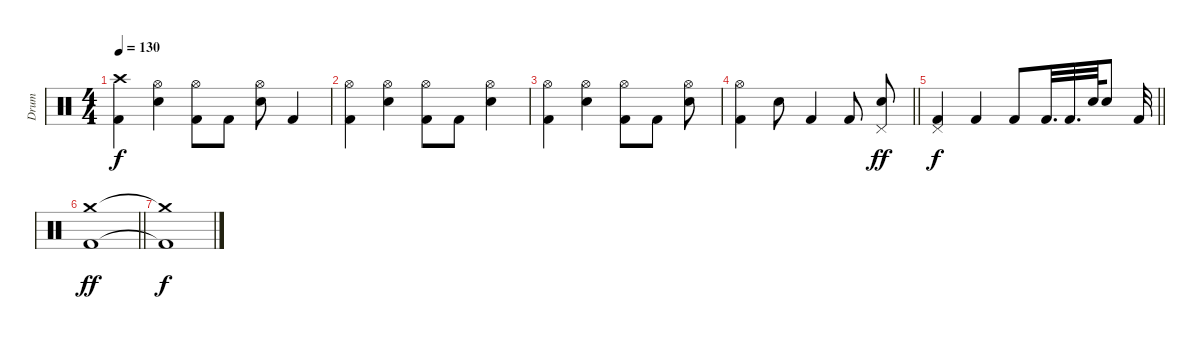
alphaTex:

\track ("Drum" "Drum") {instrument percussion}
\staff {score}
\articulation defaults
\ts (4 4)
\tempo 130
\clef neutral
\ks c
("Crash high (hit)" "Kick (hit) 2").4{dy f} ("Hi-Hat (open)" "Electric Snare (hit)").4 ("Hi-Hat (open)" "Kick (hit) 2").8 "Kick (hit) 2".8 ("Hi-Hat (open)" "Electric Snare (hit)").8 "Kick (hit) 2".4 |
("Hi-Hat (open)" "Kick (hit) 2").4 ("Hi-Hat (open)" "Electric Snare (hit)").4 ("Hi-Hat (open)" "Kick (hit) 2").8 "Kick (hit) 2".8 ("Hi-Hat (open)" "Electric Snare (hit)").4 |
("Hi-Hat (open)" "Kick (hit) 2").4 ("Hi-Hat (open)" "Electric Snare (hit)").4 ("Hi-Hat (open)" "Kick (hit) 2").8 "Kick (hit) 2".8 ("Hi-Hat (open)" "Electric Snare (hit)").8 |
\barLineRight lightlight
("Hi-Hat (open)" "Kick (hit) 2").4 "Electric Snare (hit)".8 "Kick (hit) 2".4 "Kick (hit) 2".8 ("Pedal Hi-Hat (hit)" "Electric Snare (hit)").8{dy ff} |
\barLineRight lightlight
("Pedal Hi-Hat (hit)" "Kick (hit) 2").4{dy f} "Kick (hit) 2".4 "Kick (hit) 2".8 "Kick (hit) 2".32{d} "Kick (hit) 2".32{d} "Electric Snare (hit)".64 "Electric Snare (hit)".8 "Kick (hit) 2".32 |
\barLineRight lightlight
("Crash medium (hit)" "Kick (hit) 2").1{dy ff} |
("Crash medium (hit)"{t} "Kick (hit) 2"{t}).1{dy f}
